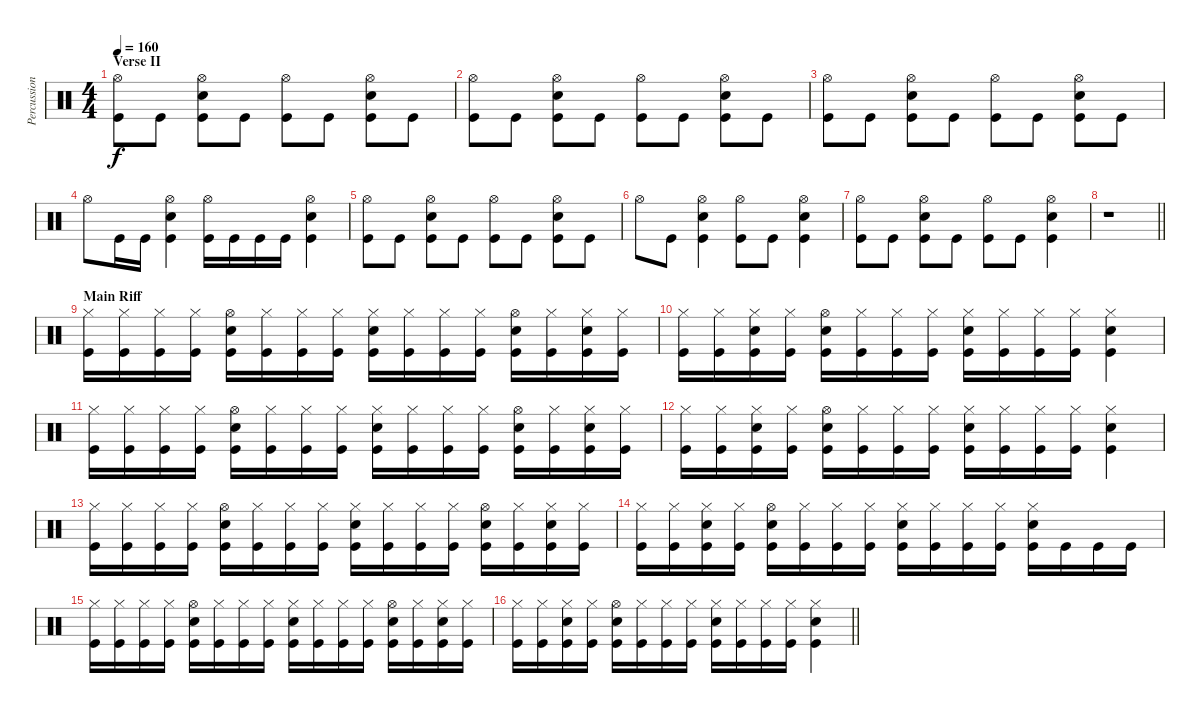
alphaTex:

\track ("Percussion" "Percussion") {instrument percussion}
\staff {score}
\articulation defaults
\ts (4 4)
\section ("" "Verse II")
\tempo 160
\clef neutral
\ks c
("Hi-Hat (open)" "Kick (hit)").8{dy f} "Kick (hit)".8 ("Hi-Hat (open)" "Electric Snare (hit)" "Kick (hit)").8 "Kick (hit)".8 ("Hi-Hat (open)" "Kick (hit)").8 "Kick (hit)".8 ("Hi-Hat (open)" "Electric Snare (hit)" "Kick (hit)").8 "Kick (hit)".8 |
("Hi-Hat (open)" "Kick (hit)").8 "Kick (hit)".8 ("Hi-Hat (open)" "Electric Snare (hit)" "Kick (hit)").8 "Kick (hit)".8 ("Hi-Hat (open)" "Kick (hit)").8 "Kick (hit)".8 ("Hi-Hat (open)" "Electric Snare (hit)" "Kick (hit)").8 "Kick (hit)".8 |
("Hi-Hat (open)" "Kick (hit)").8 "Kick (hit)".8 ("Hi-Hat (open)" "Electric Snare (hit)" "Kick (hit)").8 "Kick (hit)".8 ("Hi-Hat (open)" "Kick (hit)").8 "Kick (hit)".8 ("Hi-Hat (open)" "Electric Snare (hit)" "Kick (hit)").8 "Kick (hit)".8 |
"Hi-Hat (open)".8 "Kick (hit)".16 "Kick (hit)".16 ("Hi-Hat (open)" "Electric Snare (hit)" "Kick (hit)").4 ("Hi-Hat (open)" "Kick (hit)").16 "Kick (hit)".16 "Kick (hit)".16 "Kick (hit)".16 ("Hi-Hat (open)" "Electric Snare (hit)" "Kick (hit)").4 |
("Hi-Hat (open)" "Kick (hit)").8 "Kick (hit)".8 ("Hi-Hat (open)" "Electric Snare (hit)" "Kick (hit)").8 "Kick (hit)".8 ("Hi-Hat (open)" "Kick (hit)").8 "Kick (hit)".8 ("Hi-Hat (open)" "Electric Snare (hit)" "Kick (hit)").8 "Kick (hit)".8 |
"Hi-Hat (open)".8 "Kick (hit)".8 ("Hi-Hat (open)" "Electric Snare (hit)" "Kick (hit)").4 ("Hi-Hat (open)" "Kick (hit)").8 "Kick (hit)".8 ("Hi-Hat (open)" "Electric Snare (hit)" "Kick (hit)").4 |
("Hi-Hat (open)" "Kick (hit)").8 "Kick (hit)".8 ("Hi-Hat (open)" "Electric Snare (hit)" "Kick (hit)").8 "Kick (hit)".8 ("Hi-Hat (open)" "Kick (hit)").8 "Kick (hit)".8 ("Hi-Hat (open)" "Electric Snare (hit)" "Kick (hit)").4 |
\barLineRight lightlight
r.1 |
\section ("" "Main Riff")
("Hi-Hat (closed)" "Kick (hit)").16 ("Hi-Hat (closed)" "Kick (hit)").16 ("Hi-Hat (closed)" "Kick (hit)").16 ("Hi-Hat (closed)" "Kick (hit)").16 ("Hi-Hat (open)" "Electric Snare (hit)" "Kick (hit)").16 ("Hi-Hat (closed)" "Kick (hit)").16 ("Hi-Hat (closed)" "Kick (hit)").16 ("Hi-Hat (closed)" "Kick (hit)").16 ("Hi-Hat (closed)" "Electric Snare (hit)" "Kick (hit)").16 ("Hi-Hat (closed)" "Kick (hit)").16 ("Hi-Hat (closed)" "Kick (hit)").16 ("Hi-Hat (closed)" "Kick (hit)").16 ("Hi-Hat (open)" "Electric Snare (hit)" "Kick (hit)").16 ("Hi-Hat (closed)" "Kick (hit)").16 ("Hi-Hat (closed)" "Electric Snare (hit)" "Kick (hit)").16 ("Hi-Hat (closed)" "Kick (hit)").16 |
("Hi-Hat (closed)" "Kick (hit)").16 ("Hi-Hat (closed)" "Kick (hit)").16 ("Hi-Hat (closed)" "Electric Snare (hit)" "Kick (hit)").16 ("Hi-Hat (closed)" "Kick (hit)").16 ("Hi-Hat (open)" "Electric Snare (hit)" "Kick (hit)").16 ("Hi-Hat (closed)" "Kick (hit)").16 ("Hi-Hat (closed)" "Kick (hit)").16 ("Hi-Hat (closed)" "Kick (hit)").16 ("Hi-Hat (closed)" "Electric Snare (hit)" "Kick (hit)").16 ("Hi-Hat (closed)" "Kick (hit)").16 ("Hi-Hat (closed)" "Kick (hit)").16 ("Hi-Hat (closed)" "Kick (hit)").16 ("Hi-Hat (closed)" "Electric Snare (hit)" "Kick (hit)").4 |
("Hi-Hat (closed)" "Kick (hit)").16 ("Hi-Hat (closed)" "Kick (hit)").16 ("Hi-Hat (closed)" "Kick (hit)").16 ("Hi-Hat (closed)" "Kick (hit)").16 ("Hi-Hat (open)" "Electric Snare (hit)" "Kick (hit)").16 ("Hi-Hat (closed)" "Kick (hit)").16 ("Hi-Hat (closed)" "Kick (hit)").16 ("Hi-Hat (closed)" "Kick (hit)").16 ("Hi-Hat (closed)" "Electric Snare (hit)" "Kick (hit)").16 ("Hi-Hat (closed)" "Kick (hit)").16 ("Hi-Hat (closed)" "Kick (hit)").16 ("Hi-Hat (closed)" "Kick (hit)").16 ("Hi-Hat (open)" "Electric Snare (hit)" "Kick (hit)").16 ("Hi-Hat (closed)" "Kick (hit)").16 ("Hi-Hat (closed)" "Electric Snare (hit)" "Kick (hit)").16 ("Hi-Hat (closed)" "Kick (hit)").16 |
("Hi-Hat (closed)" "Kick (hit)").16 ("Hi-Hat (closed)" "Kick (hit)").16 ("Hi-Hat (closed)" "Electric Snare (hit)" "Kick (hit)").16 ("Hi-Hat (closed)" "Kick (hit)").16 ("Hi-Hat (open)" "Electric Snare (hit)" "Kick (hit)").16 ("Hi-Hat (closed)" "Kick (hit)").16 ("Hi-Hat (closed)" "Kick (hit)").16 ("Hi-Hat (closed)" "Kick (hit)").16 ("Hi-Hat (closed)" "Electric Snare (hit)" "Kick (hit)").16 ("Hi-Hat (closed)" "Kick (hit)").16 ("Hi-Hat (closed)" "Kick (hit)").16 ("Hi-Hat (closed)" "Kick (hit)").16 ("Hi-Hat (closed)" "Electric Snare (hit)" "Kick (hit)").4 |
("Hi-Hat (closed)" "Kick (hit)").16 ("Hi-Hat (closed)" "Kick (hit)").16 ("Hi-Hat (closed)" "Kick (hit)").16 ("Hi-Hat (closed)" "Kick (hit)").16 ("Hi-Hat (open)" "Electric Snare (hit)" "Kick (hit)").16 ("Hi-Hat (closed)" "Kick (hit)").16 ("Hi-Hat (closed)" "Kick (hit)").16 ("Hi-Hat (closed)" "Kick (hit)").16 ("Hi-Hat (closed)" "Electric Snare (hit)" "Kick (hit)").16 ("Hi-Hat (closed)" "Kick (hit)").16 ("Hi-Hat (closed)" "Kick (hit)").16 ("Hi-Hat (closed)" "Kick (hit)").16 ("Hi-Hat (open)" "Electric Snare (hit)" "Kick (hit)").16 ("Hi-Hat (closed)" "Kick (hit)").16 ("Hi-Hat (closed)" "Electric Snare (hit)" "Kick (hit)").16 ("Hi-Hat (closed)" "Kick (hit)").16 |
("Hi-Hat (closed)" "Kick (hit)").16 ("Hi-Hat (closed)" "Kick (hit)").16 ("Hi-Hat (closed)" "Electric Snare (hit)" "Kick (hit)").16 ("Hi-Hat (closed)" "Kick (hit)").16 ("Hi-Hat (open)" "Electric Snare (hit)" "Kick (hit)").16 ("Hi-Hat (closed)" "Kick (hit)").16 ("Hi-Hat (closed)" "Kick (hit)").16 ("Hi-Hat (closed)" "Kick (hit)").16 ("Hi-Hat (closed)" "Electric Snare (hit)" "Kick (hit)").16 ("Hi-Hat (closed)" "Kick (hit)").16 ("Hi-Hat (closed)" "Kick (hit)").16 ("Hi-Hat (closed)" "Kick (hit)").16 ("Hi-Hat (closed)" "Electric Snare (hit)" "Kick (hit)").16 "Kick (hit)".16 "Kick (hit)".16 "Kick (hit)".16 |
("Hi-Hat (closed)" "Kick (hit)").16 ("Hi-Hat (closed)" "Kick (hit)").16 ("Hi-Hat (closed)" "Kick (hit)").16 ("Hi-Hat (closed)" "Kick (hit)").16 ("Hi-Hat (open)" "Electric Snare (hit)" "Kick (hit)").16 ("Hi-Hat (closed)" "Kick (hit)").16 ("Hi-Hat (closed)" "Kick (hit)").16 ("Hi-Hat (closed)" "Kick (hit)").16 ("Hi-Hat (closed)" "Electric Snare (hit)" "Kick (hit)").16 ("Hi-Hat (closed)" "Kick (hit)").16 ("Hi-Hat (closed)" "Kick (hit)").16 ("Hi-Hat (closed)" "Kick (hit)").16 ("Hi-Hat (open)" "Electric Snare (hit)" "Kick (hit)").16 ("Hi-Hat (closed)" "Kick (hit)").16 ("Hi-Hat (closed)" "Electric Snare (hit)" "Kick (hit)").16 ("Hi-Hat (closed)" "Kick (hit)").16 |
\barLineRight lightlight
("Hi-Hat (closed)" "Kick (hit)").16 ("Hi-Hat (closed)" "Kick (hit)").16 ("Hi-Hat (closed)" "Electric Snare (hit)" "Kick (hit)").16 ("Hi-Hat (closed)" "Kick (hit)").16 ("Hi-Hat (open)" "Electric Snare (hit)" "Kick (hit)").16 ("Hi-Hat (closed)" "Kick (hit)").16 ("Hi-Hat (closed)" "Kick (hit)").16 ("Hi-Hat (closed)" "Kick (hit)").16 ("Hi-Hat (closed)" "Electric Snare (hit)" "Kick (hit)").16 ("Hi-Hat (closed)" "Kick (hit)").16 ("Hi-Hat (closed)" "Kick (hit)").16 ("Hi-Hat (closed)" "Kick (hit)").16 ("Hi-Hat (closed)" "Electric Snare (hit)" "Kick (hit)").4
